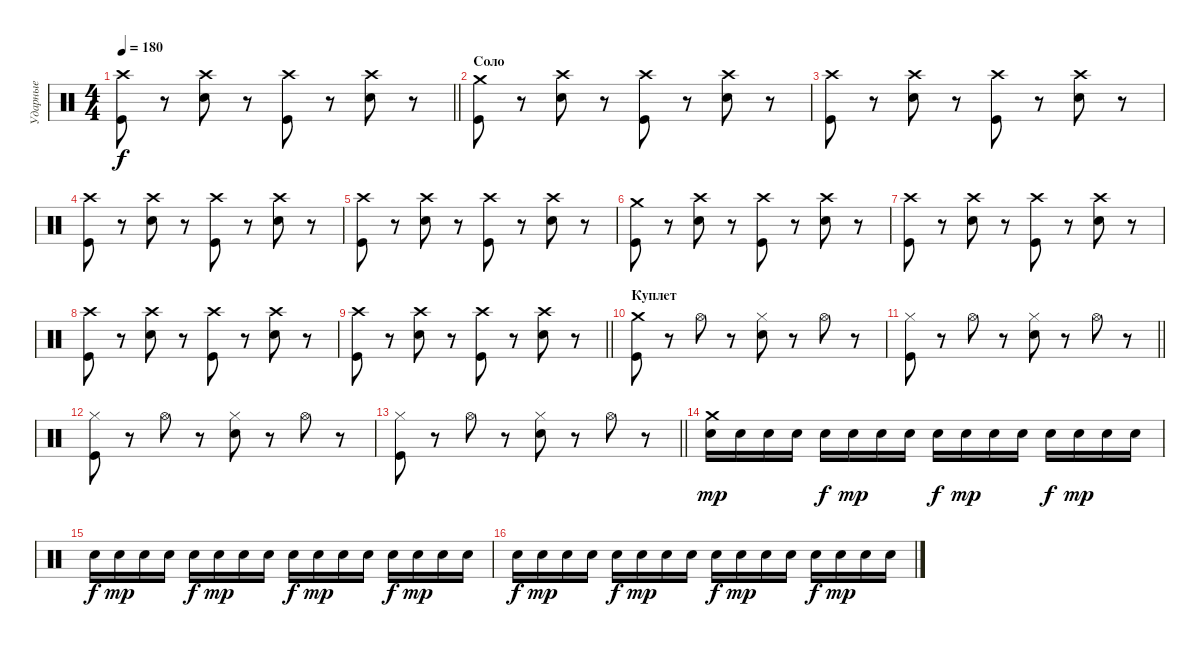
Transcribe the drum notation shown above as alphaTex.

\track ("Ударные" "Ударные") {instrument percussion}
\staff {score}
\articulation defaults
\ts (4 4)
\tempo 180
\clef neutral
\barLineRight lightlight
\ks c
("Crash high (hit)" "Kick (hit)").8{dy f} r.8 ("Crash high (hit)" "Electric Snare (hit)").8 r.8 ("Crash high (hit)" "Kick (hit)").8 r.8 ("Crash high (hit)" "Electric Snare (hit)").8 r.8 |
\section ("" "Соло")
("Crash medium (hit)" "Kick (hit)").8 r.8 ("Crash high (hit)" "Electric Snare (hit)").8 r.8 ("Crash high (hit)" "Kick (hit)").8 r.8 ("Crash high (hit)" "Electric Snare (hit)").8 r.8 |
("Crash high (hit)" "Kick (hit)").8 r.8 ("Crash high (hit)" "Electric Snare (hit)").8 r.8 ("Crash high (hit)" "Kick (hit)").8 r.8 ("Crash high (hit)" "Electric Snare (hit)").8 r.8 |
("Crash high (hit)" "Kick (hit)").8 r.8 ("Crash high (hit)" "Electric Snare (hit)").8 r.8 ("Crash high (hit)" "Kick (hit)").8 r.8 ("Crash high (hit)" "Electric Snare (hit)").8 r.8 |
("Crash high (hit)" "Kick (hit)").8 r.8 ("Crash high (hit)" "Electric Snare (hit)").8 r.8 ("Crash high (hit)" "Kick (hit)").8 r.8 ("Crash high (hit)" "Electric Snare (hit)").8 r.8 |
("Crash medium (hit)" "Kick (hit)").8 r.8 ("Crash high (hit)" "Electric Snare (hit)").8 r.8 ("Crash high (hit)" "Kick (hit)").8 r.8 ("Crash high (hit)" "Electric Snare (hit)").8 r.8 |
("Crash high (hit)" "Kick (hit)").8 r.8 ("Crash high (hit)" "Electric Snare (hit)").8 r.8 ("Crash high (hit)" "Kick (hit)").8 r.8 ("Crash high (hit)" "Electric Snare (hit)").8 r.8 |
("Crash high (hit)" "Kick (hit)").8 r.8 ("Crash high (hit)" "Electric Snare (hit)").8 r.8 ("Crash high (hit)" "Kick (hit)").8 r.8 ("Crash high (hit)" "Electric Snare (hit)").8 r.8 |
\barLineRight lightlight
("Crash high (hit)" "Kick (hit)").8 r.8 ("Crash high (hit)" "Electric Snare (hit)").8 r.8 ("Crash high (hit)" "Kick (hit)").8 r.8 ("Crash high (hit)" "Electric Snare (hit)").8 r.8 |
\section ("" "Куплет")
("Crash medium (hit)" "Kick (hit)").8 r.8 "Hi-Hat (open)".8 r.8 ("Hi-Hat (closed)" "Electric Snare (hit)").8 r.8 "Hi-Hat (open)".8 r.8 |
\barLineRight lightlight
("Hi-Hat (closed)" "Kick (hit)").8 r.8 "Hi-Hat (open)".8 r.8 ("Hi-Hat (closed)" "Electric Snare (hit)").8 r.8 "Hi-Hat (open)".8 r.8 |
("Hi-Hat (closed)" "Kick (hit)").8 r.8 "Hi-Hat (open)".8 r.8 ("Hi-Hat (closed)" "Electric Snare (hit)").8 r.8 "Hi-Hat (open)".8 r.8 |
\barLineRight lightlight
("Hi-Hat (closed)" "Kick (hit)").8 r.8 "Hi-Hat (open)".8 r.8 ("Hi-Hat (closed)" "Electric Snare (hit)").8 r.8 "Hi-Hat (open)".8 r.8 |
\section ("" " ")
("Crash medium (hit)" "Electric Snare (hit)").16{dy mp} "Electric Snare (hit)".16 "Electric Snare (hit)".16 "Electric Snare (hit)".16 "Electric Snare (hit)".16{dy f} "Electric Snare (hit)".16{dy mp} "Electric Snare (hit)".16 "Electric Snare (hit)".16 "Electric Snare (hit)".16{dy f} "Electric Snare (hit)".16{dy mp} "Electric Snare (hit)".16 "Electric Snare (hit)".16 "Electric Snare (hit)".16{dy f} "Electric Snare (hit)".16{dy mp} "Electric Snare (hit)".16 "Electric Snare (hit)".16 |
"Electric Snare (hit)".16{dy f} "Electric Snare (hit)".16{dy mp} "Electric Snare (hit)".16 "Electric Snare (hit)".16 "Electric Snare (hit)".16{dy f} "Electric Snare (hit)".16{dy mp} "Electric Snare (hit)".16 "Electric Snare (hit)".16 "Electric Snare (hit)".16{dy f} "Electric Snare (hit)".16{dy mp} "Electric Snare (hit)".16 "Electric Snare (hit)".16 "Electric Snare (hit)".16{dy f} "Electric Snare (hit)".16{dy mp} "Electric Snare (hit)".16 "Electric Snare (hit)".16 |
"Electric Snare (hit)".16{dy f} "Electric Snare (hit)".16{dy mp} "Electric Snare (hit)".16 "Electric Snare (hit)".16 "Electric Snare (hit)".16{dy f} "Electric Snare (hit)".16{dy mp} "Electric Snare (hit)".16 "Electric Snare (hit)".16 "Electric Snare (hit)".16{dy f} "Electric Snare (hit)".16{dy mp} "Electric Snare (hit)".16 "Electric Snare (hit)".16 "Electric Snare (hit)".16{dy f} "Electric Snare (hit)".16{dy mp} "Electric Snare (hit)".16 "Electric Snare (hit)".16
